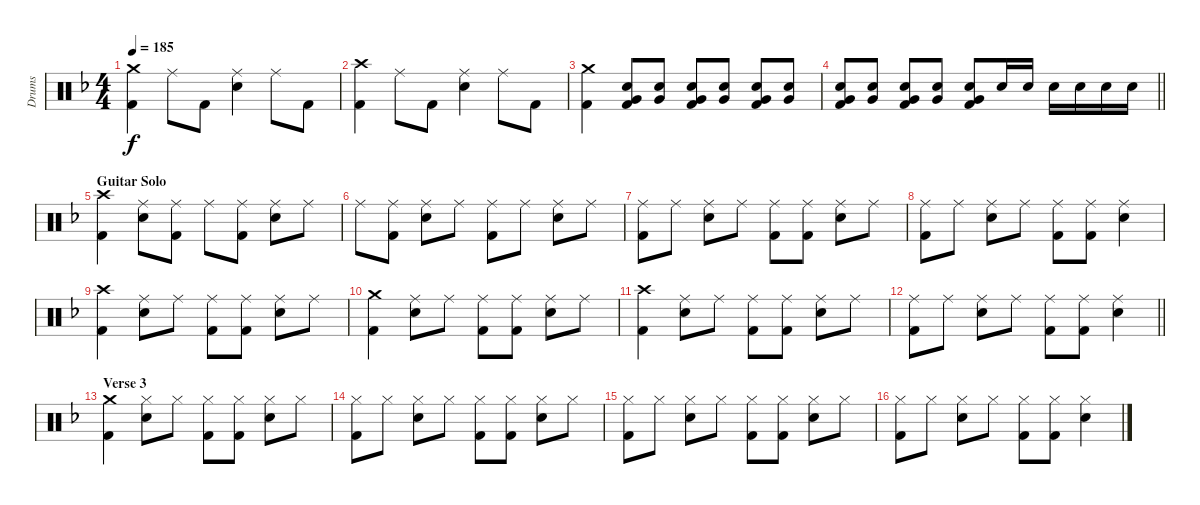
\track ("Drums" "Drums") {instrument percussion}
\staff {score}
\articulation defaults
\ts (4 4)
\tempo 185
\clef neutral
\ks f
("Crash medium (hit)" "Kick (hit) 2").4{dy f} "Ride (middle)".8 "Kick (hit) 2".8 ("Ride (middle)" "Snare (hit) 2").4 "Ride (middle)".8 "Kick (hit) 2".8 |
("Crash high (hit)" "Kick (hit) 2").4 "Ride (middle)".8 "Kick (hit) 2".8 ("Ride (middle)" "Snare (hit) 2").4 "Ride (middle)".8 "Kick (hit) 2".8 |
("Crash medium (hit)" "Kick (hit) 2").4 ("Snare (hit) 2" "Very Low Tom (hit)" "Kick (hit) 2").8 ("Snare (hit) 2" "Very Low Tom (hit)").8 ("Snare (hit) 2" "Very Low Tom (hit)" "Kick (hit) 2").8 ("Snare (hit) 2" "Very Low Tom (hit)").8 ("Snare (hit) 2" "Very Low Tom (hit)" "Kick (hit) 2").8 ("Snare (hit) 2" "Very Low Tom (hit)").8 |
\barLineRight lightlight
("Snare (hit) 2" "Very Low Tom (hit)" "Kick (hit) 2").8 ("Snare (hit) 2" "Very Low Tom (hit)").8 ("Snare (hit) 2" "Very Low Tom (hit)" "Kick (hit) 2").8 ("Snare (hit) 2" "Very Low Tom (hit)").8 ("Snare (hit) 2" "Very Low Tom (hit)" "Kick (hit) 2").8 "Snare (hit) 2".16 "Snare (hit) 2".16 "Snare (hit) 2".16 "Snare (hit) 2".16 "Snare (hit) 2".16 "Snare (hit) 2".16 |
\section ("" "Guitar Solo")
("Crash high (hit)" "Kick (hit) 2").4 ("Snare (hit) 2" "Ride (middle)").8 ("Kick (hit) 2" "Ride (middle)").8 "Ride (middle)".8 ("Ride (middle)" "Kick (hit) 2").8 ("Ride (middle)" "Snare (hit) 2").8 "Ride (middle)".8 |
"Ride (middle)".8 ("Ride (middle)" "Kick (hit) 2").8 ("Ride (middle)" "Snare (hit) 2").8 "Ride (middle)".8 ("Ride (middle)" "Kick (hit) 2").8 "Ride (middle)".8 ("Ride (middle)" "Snare (hit) 2").8 "Ride (middle)".8 |
("Ride (middle)" "Kick (hit) 2").8 "Ride (middle)".8 ("Ride (middle)" "Snare (hit) 2").8 "Ride (middle)".8 ("Ride (middle)" "Kick (hit) 2").8 ("Ride (middle)" "Kick (hit) 2").8 ("Ride (middle)" "Snare (hit) 2").8 "Ride (middle)".8 |
("Ride (middle)" "Kick (hit) 2").8 "Ride (middle)".8 ("Ride (middle)" "Snare (hit) 2").8 "Ride (middle)".8 ("Ride (middle)" "Kick (hit) 2").8 ("Ride (middle)" "Kick (hit) 2").8 ("Ride (middle)" "Snare (hit) 2").4 |
("Crash high (hit)" "Kick (hit) 2").4 ("Ride (middle)" "Snare (hit) 2").8 "Ride (middle)".8 ("Ride (middle)" "Kick (hit) 2").8 ("Ride (middle)" "Kick (hit) 2").8 ("Ride (middle)" "Snare (hit) 2").8 "Ride (middle)".8 |
("Crash medium (hit)" "Kick (hit) 2").4 ("Ride (middle)" "Snare (hit) 2").8 "Ride (middle)".8 ("Ride (middle)" "Kick (hit) 2").8 ("Ride (middle)" "Kick (hit) 2").8 ("Ride (middle)" "Snare (hit) 2").8 "Ride (middle)".8 |
("Crash high (hit)" "Kick (hit) 2").4 ("Ride (middle)" "Snare (hit) 2").8 "Ride (middle)".8 ("Ride (middle)" "Kick (hit) 2").8 ("Ride (middle)" "Kick (hit) 2").8 ("Ride (middle)" "Snare (hit) 2").8 "Ride (middle)".8 |
\barLineRight lightlight
("Ride (middle)" "Kick (hit) 2").8 "Ride (middle)".8 ("Ride (middle)" "Snare (hit) 2").8 "Ride (middle)".8 ("Ride (middle)" "Kick (hit) 2").8 ("Ride (middle)" "Kick (hit) 2").8 ("Ride (middle)" "Snare (hit) 2").4 |
\section ("" "Verse 3")
("Crash medium (hit)" "Kick (hit) 2").4 ("Hi-Hat (closed)" "Snare (hit) 2").8 "Hi-Hat (closed)".8 ("Hi-Hat (closed)" "Kick (hit) 2").8 ("Hi-Hat (closed)" "Kick (hit) 2").8 ("Hi-Hat (closed)" "Snare (hit) 2").8 "Hi-Hat (closed)".8 |
("Hi-Hat (closed)" "Kick (hit) 2").8 "Hi-Hat (closed)".8 ("Hi-Hat (closed)" "Snare (hit) 2").8 "Hi-Hat (closed)".8 ("Hi-Hat (closed)" "Kick (hit) 2").8 ("Hi-Hat (closed)" "Kick (hit) 2").8 ("Hi-Hat (closed)" "Snare (hit) 2").8 "Hi-Hat (closed)".8 |
("Hi-Hat (closed)" "Kick (hit) 2").8 "Hi-Hat (closed)".8 ("Hi-Hat (closed)" "Snare (hit) 2").8 "Hi-Hat (closed)".8 ("Hi-Hat (closed)" "Kick (hit) 2").8 ("Hi-Hat (closed)" "Kick (hit) 2").8 ("Hi-Hat (closed)" "Snare (hit) 2").8 "Hi-Hat (closed)".8 |
("Kick (hit) 2" "Hi-Hat (closed)").8 "Hi-Hat (closed)".8 ("Snare (hit) 2" "Hi-Hat (closed)").8 "Hi-Hat (closed)".8 ("Kick (hit) 2" "Hi-Hat (closed)").8 ("Kick (hit) 2" "Hi-Hat (closed)").8 ("Hi-Hat (closed)" "Snare (hit) 2").4
